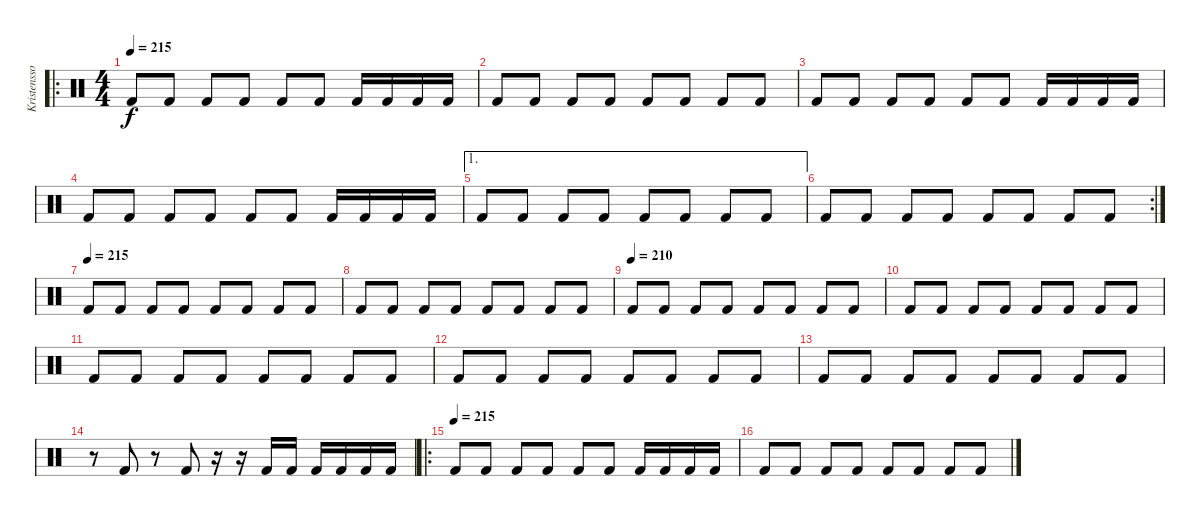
\track ("Kristensson" "Kristensso") {instrument percussion}
\staff {score}
\articulation defaults
\ro
\ts (4 4)
\tempo 215
\clef neutral
\ks c "Kick (hit) 2".8{dy f} "Kick (hit) 2".8 "Kick (hit) 2".8 "Kick (hit) 2".8 "Kick (hit) 2".8 "Kick (hit) 2".8 "Kick (hit) 2".16 "Kick (hit) 2".16 "Kick (hit) 2".16 "Kick (hit) 2".16
|
"Kick (hit) 2".8 "Kick (hit) 2".8 "Kick (hit) 2".8 "Kick (hit) 2".8 "Kick (hit) 2".8 "Kick (hit) 2".8 "Kick (hit) 2".8 "Kick (hit) 2".8 |
"Kick (hit) 2".8 "Kick (hit) 2".8 "Kick (hit) 2".8 "Kick (hit) 2".8 "Kick (hit) 2".8 "Kick (hit) 2".8 "Kick (hit) 2".16 "Kick (hit) 2".16 "Kick (hit) 2".16 "Kick (hit) 2".16 |
"Kick (hit) 2".8 "Kick (hit) 2".8 "Kick (hit) 2".8 "Kick (hit) 2".8 "Kick (hit) 2".8 "Kick (hit) 2".8 "Kick (hit) 2".16 "Kick (hit) 2".16 "Kick (hit) 2".16 "Kick (hit) 2".16 |
\ae 1 "Kick (hit) 2".8 "Kick (hit) 2".8 "Kick (hit) 2".8 "Kick (hit) 2".8 "Kick (hit) 2".8 "Kick (hit) 2".8 "Kick (hit) 2".8 "Kick (hit) 2".8
|
\rc 2 "Kick (hit) 2".8 "Kick (hit) 2".8 "Kick (hit) 2".8 "Kick (hit) 2".8 "Kick (hit) 2".8 "Kick (hit) 2".8 "Kick (hit) 2".8 "Kick (hit) 2".8
|
\tempo (215)
"Kick (hit) 2".8 "Kick (hit) 2".8 "Kick (hit) 2".8 "Kick (hit) 2".8 "Kick (hit) 2".8 "Kick (hit) 2".8 "Kick (hit) 2".8 "Kick (hit) 2".8 |
"Kick (hit) 2".8 "Kick (hit) 2".8 "Kick (hit) 2".8 "Kick (hit) 2".8 "Kick (hit) 2".8 "Kick (hit) 2".8 "Kick (hit) 2".8 "Kick (hit) 2".8 |
\tempo (210)
"Kick (hit) 2".8 "Kick (hit) 2".8 "Kick (hit) 2".8 "Kick (hit) 2".8 "Kick (hit) 2".8 "Kick (hit) 2".8 "Kick (hit) 2".8 "Kick (hit) 2".8 |
"Kick (hit) 2".8 "Kick (hit) 2".8 "Kick (hit) 2".8 "Kick (hit) 2".8 "Kick (hit) 2".8 "Kick (hit) 2".8 "Kick (hit) 2".8 "Kick (hit) 2".8 |
"Kick (hit) 2".8 "Kick (hit) 2".8 "Kick (hit) 2".8 "Kick (hit) 2".8 "Kick (hit) 2".8 "Kick (hit) 2".8 "Kick (hit) 2".8 "Kick (hit) 2".8 |
"Kick (hit) 2".8 "Kick (hit) 2".8 "Kick (hit) 2".8 "Kick (hit) 2".8 "Kick (hit) 2".8 "Kick (hit) 2".8 "Kick (hit) 2".8 "Kick (hit) 2".8 |
"Kick (hit) 2".8 "Kick (hit) 2".8 "Kick (hit) 2".8 "Kick (hit) 2".8 "Kick (hit) 2".8 "Kick (hit) 2".8 "Kick (hit) 2".8 "Kick (hit) 2".8 |
r.8 "Kick (hit) 2".8 r.8 "Kick (hit) 2".8 r.16 r.16 "Kick (hit) 2".16 "Kick (hit) 2".16 "Kick (hit) 2".16 "Kick (hit) 2".16 "Kick (hit) 2".16 "Kick (hit) 2".16 |
\ro
\tempo (215)
"Kick (hit) 2".8 "Kick (hit) 2".8 "Kick (hit) 2".8 "Kick (hit) 2".8 "Kick (hit) 2".8 "Kick (hit) 2".8 "Kick (hit) 2".16 "Kick (hit) 2".16 "Kick (hit) 2".16 "Kick (hit) 2".16 |
"Kick (hit) 2".8 "Kick (hit) 2".8 "Kick (hit) 2".8 "Kick (hit) 2".8 "Kick (hit) 2".8 "Kick (hit) 2".8 "Kick (hit) 2".8 "Kick (hit) 2".8
